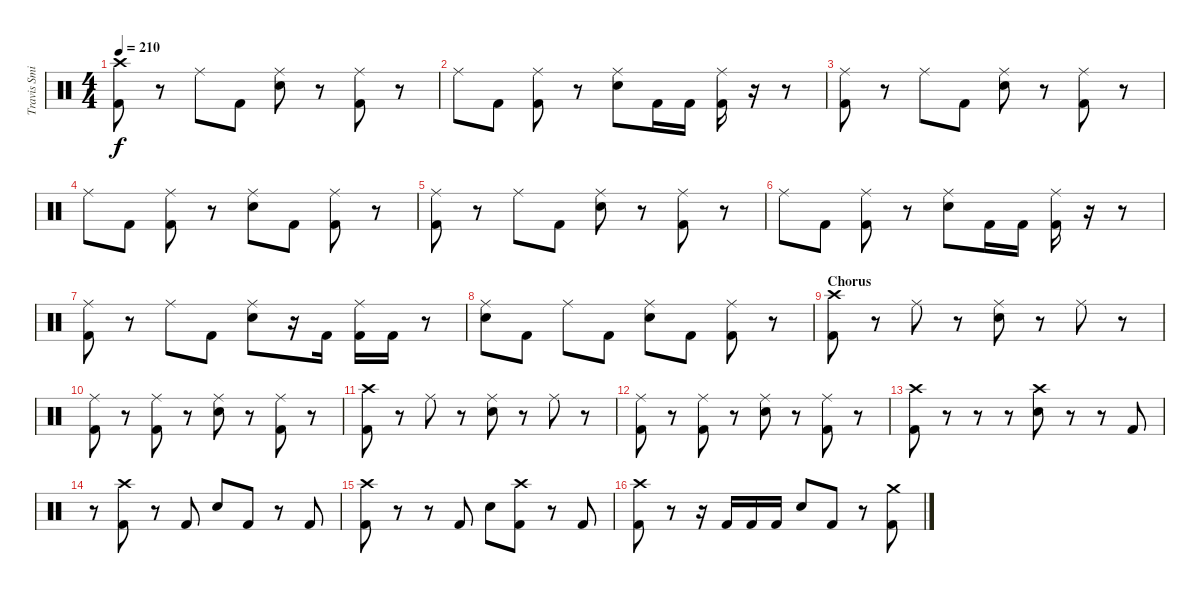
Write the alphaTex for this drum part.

\track ("Travis Smith" "Travis Smi") {instrument percussion}
\staff {score}
\articulation defaults
\ts (4 4)
\tempo 210
\clef neutral
\ks c
("Crash high (hit)" "Kick (hit) 2").8{dy f} r.8 "Ride (middle)".8 "Kick (hit) 2".8 ("Ride (middle)" "Electric Snare (hit)").8 r.8 ("Ride (middle)" "Kick (hit) 2").8 r.8 |
"Ride (middle)".8 "Kick (hit) 2".8 ("Ride (middle)" "Kick (hit) 2").8 r.8 ("Ride (middle)" "Electric Snare (hit)").8 "Kick (hit) 2".16 "Kick (hit) 2".16 ("Ride (middle)" "Kick (hit) 2").16 r.16 r.8 |
("Ride (middle)" "Kick (hit) 2").8 r.8 "Ride (middle)".8 "Kick (hit) 2".8 ("Ride (middle)" "Electric Snare (hit)").8 r.8 ("Ride (middle)" "Kick (hit) 2").8 r.8 |
"Ride (middle)".8 "Kick (hit) 2".8 ("Ride (middle)" "Kick (hit) 2").8 r.8 ("Ride (middle)" "Electric Snare (hit)").8 "Kick (hit) 2".8 ("Ride (middle)" "Kick (hit) 2").8 r.8 |
("Ride (middle)" "Kick (hit) 2").8 r.8 "Ride (middle)".8 "Kick (hit) 2".8 ("Ride (middle)" "Electric Snare (hit)").8 r.8 ("Ride (middle)" "Kick (hit) 2").8 r.8 |
"Ride (middle)".8 "Kick (hit) 2".8 ("Ride (middle)" "Kick (hit) 2").8 r.8 ("Ride (middle)" "Electric Snare (hit)").8 "Kick (hit) 2".16 "Kick (hit) 2".16 ("Ride (middle)" "Kick (hit) 2").16 r.16 r.8 |
("Ride (middle)" "Kick (hit) 2").8 r.8 "Ride (middle)".8 "Kick (hit) 2".8 ("Ride (middle)" "Electric Snare (hit)").8 r.16 "Kick (hit) 2".16 ("Ride (middle)" "Kick (hit) 2").16 "Kick (hit) 2".16 r.8 |
("Ride (middle)" "Electric Snare (hit)").8 "Kick (hit) 2".8 "Ride (middle)".8 "Kick (hit) 2".8 ("Ride (middle)" "Electric Snare (hit)").8 "Kick (hit) 2".8 ("Ride (middle)" "Kick (hit) 2").8 r.8 |
\section ("" "Chorus")
("Crash high (hit)" "Kick (hit) 2").8 r.8 "Ride (middle)".8 r.8 ("Ride (middle)" "Electric Snare (hit)").8 r.8 "Ride (middle)".8 r.8 |
("Ride (middle)" "Kick (hit) 2").8 r.8 ("Ride (middle)" "Kick (hit) 2").8 r.8 ("Ride (middle)" "Electric Snare (hit)").8 r.8 ("Ride (middle)" "Kick (hit) 2").8 r.8 |
("Crash high (hit)" "Kick (hit) 2").8 r.8 "Ride (middle)".8 r.8 ("Ride (middle)" "Electric Snare (hit)").8 r.8 "Ride (middle)".8 r.8 |
("Ride (middle)" "Kick (hit) 2").8 r.8 ("Ride (middle)" "Kick (hit) 2").8 r.8 ("Ride (middle)" "Electric Snare (hit)").8 r.8 ("Ride (middle)" "Kick (hit) 2").8 r.8 |
("Crash high (hit)" "Kick (hit) 2").8 r.8 r.8 r.8 ("Crash high (hit)" "Electric Snare (hit)").8 r.8 r.8 "Kick (hit) 2".8 |
r.8 ("Crash high (hit)" "Kick (hit) 2").8 r.8 "Kick (hit) 2".8 "Electric Snare (hit)".8 "Kick (hit) 2".8 r.8 "Kick (hit) 2".8 |
("Crash high (hit)" "Kick (hit) 2").8 r.8 r.8 "Kick (hit) 2".8 "Electric Snare (hit)".8 ("Crash high (hit)" "Kick (hit) 2").8 r.8 "Kick (hit) 2".8 |
("Crash high (hit)" "Kick (hit) 2").8 r.8 r.16 "Kick (hit) 2".16 "Kick (hit) 2".16 "Kick (hit) 2".16 "Electric Snare (hit)".8 "Kick (hit) 2".8 r.8 ("Crash medium (hit)" "Kick (hit) 2").8
